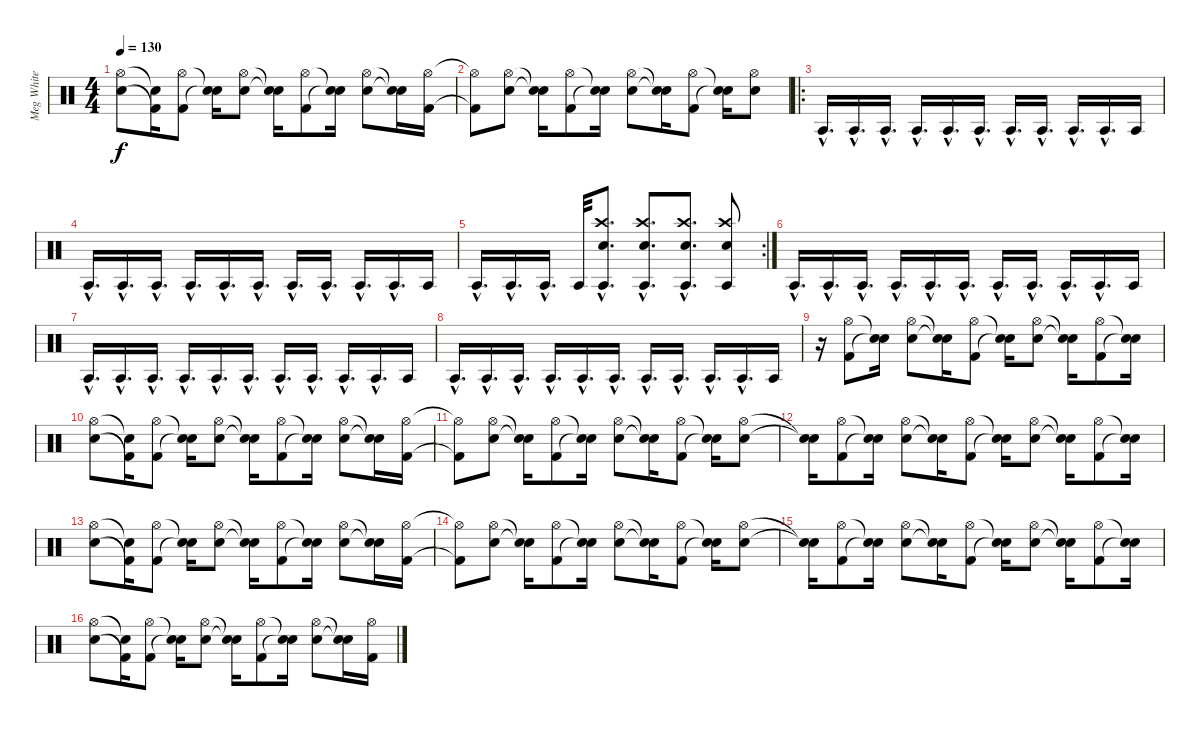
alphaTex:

\track ("Meg White" "Meg White") {instrument percussion}
\staff {score}
\articulation defaults
\ts (4 4)
\tempo 130
\clef neutral
\ks c
("Hi-Hat (open)" "Snare (hit) 2").8{dy f} ("Snare (hit)"{t} "Kick (hit) 2"{t}).16 ("Hi-Hat (open)" "Kick (hit) 2").8 ("Snare (hit)"{t} "Snare (hit) 2"{t}).16 ("Hi-Hat (open)" "Snare (hit) 2").8 ("Snare (hit)"{t} "Snare (hit)"{t}).16 ("Hi-Hat (open)" "Kick (hit) 2").8 ("Snare (hit)"{t} "Snare (hit)"{t}).16 ("Hi-Hat (open)" "Snare (hit) 2").8 ("Snare (hit)"{t} "Snare (hit)"{t}).16 ("Hi-Hat (open)" "Kick (hit) 2").16 |
("Hi-Hat (open)"{t} "Kick (hit) 2"{t}).8 ("Hi-Hat (open)" "Snare (hit) 2").8 ("Snare (hit)"{t} "Snare (hit)"{t}).16 ("Hi-Hat (open)" "Kick (hit) 2").8 ("Snare (hit)"{t} "Snare (hit)"{t}).16 ("Hi-Hat (open)" "Snare (hit) 2").8 ("Snare (hit)"{t} "Snare (hit)"{t}).16 ("Hi-Hat (open)" "Kick (hit) 2").8 ("Snare (hit)"{t} "Snare (hit)"{t}).16 ("Hi-Hat (open)" "Snare (hit) 2").8 |
\ro "Agogo tow (hit)"{hac}.16{d} "Agogo tow (hit)"{hac}.16{d} "Agogo tow (hit)"{hac}.16{d} "Agogo tow (hit)"{hac}.16{d} "Agogo tow (hit)"{hac}.16{d} "Agogo tow (hit)"{hac}.16{d} "Agogo tow (hit)"{hac}.16{d} "Agogo tow (hit)"{hac}.16{d} "Agogo tow (hit)"{hac}.16{d} "Agogo tow (hit)"{hac}.16{d} "Agogo tow (hit)".16
|
"Agogo tow (hit)"{hac}.16{d} "Agogo tow (hit)"{hac}.16{d} "Agogo tow (hit)"{hac}.16{d} "Agogo tow (hit)"{hac}.16{d} "Agogo tow (hit)"{hac}.16{d} "Agogo tow (hit)"{hac}.16{d} "Agogo tow (hit)"{hac}.16{d} "Agogo tow (hit)"{hac}.16{d} "Agogo tow (hit)"{hac}.16{d} "Agogo tow (hit)"{hac}.16{d} "Agogo tow (hit)".16 |
\rc 2 "Agogo tow (hit)"{hac}.16{d} "Agogo tow (hit)"{hac}.16{d} "Agogo tow (hit)"{hac}.16{d} "Agogo tow (hit)".32
("Agogo tow (hit)"{hac} "Crash high (hit)"{hac} "Electric Snare (hit)"{hac}).8{d} ("Agogo tow (hit)"{hac} "Crash high (hit)"{hac} "Electric Snare (hit)"{hac}).8{d} ("Agogo tow (hit)"{hac} "Crash high (hit)"{hac} "Electric Snare (hit)"{hac}).8{d} ("Agogo tow (hit)" "Crash high (hit)" "Electric Snare (hit)").8 |
"Agogo tow (hit)"{hac}.16{d} "Agogo tow (hit)"{hac}.16{d} "Agogo tow (hit)"{hac}.16{d} "Agogo tow (hit)"{hac}.16{d} "Agogo tow (hit)"{hac}.16{d} "Agogo tow (hit)"{hac}.16{d} "Agogo tow (hit)"{hac}.16{d} "Agogo tow (hit)"{hac}.16{d} "Agogo tow (hit)"{hac}.16{d} "Agogo tow (hit)"{hac}.16{d} "Agogo tow (hit)".16 |
"Agogo tow (hit)"{hac}.16{d} "Agogo tow (hit)"{hac}.16{d} "Agogo tow (hit)"{hac}.16{d} "Agogo tow (hit)"{hac}.16{d} "Agogo tow (hit)"{hac}.16{d} "Agogo tow (hit)"{hac}.16{d} "Agogo tow (hit)"{hac}.16{d} "Agogo tow (hit)"{hac}.16{d} "Agogo tow (hit)"{hac}.16{d} "Agogo tow (hit)"{hac}.16{d} "Agogo tow (hit)".16 |
"Agogo tow (hit)"{hac}.16{d} "Agogo tow (hit)"{hac}.16{d} "Agogo tow (hit)"{hac}.16{d} "Agogo tow (hit)"{hac}.16{d} "Agogo tow (hit)"{hac}.16{d} "Agogo tow (hit)"{hac}.16{d} "Agogo tow (hit)"{hac}.16{d} "Agogo tow (hit)"{hac}.16{d} "Agogo tow (hit)"{hac}.16{d} "Agogo tow (hit)"{hac}.16{d} "Agogo tow (hit)".16 |
r.16 ("Hi-Hat (open)" "Kick (hit) 2").8 ("Snare (hit)"{t} "Snare (hit)"{t}).16 ("Hi-Hat (open)" "Snare (hit) 2").8 ("Snare (hit)"{t} "Snare (hit)"{t}).16 ("Hi-Hat (open)" "Kick (hit) 2").8 ("Snare (hit)"{t} "Snare (hit)"{t}).16 ("Hi-Hat (open)" "Snare (hit) 2").8 ("Snare (hit)"{t} "Snare (hit)"{t}).16 ("Hi-Hat (open)" "Kick (hit) 2").8 ("Snare (hit)"{t} "Snare (hit)"{t}).16 |
("Hi-Hat (open)" "Snare (hit) 2").8 ("Snare (hit)"{t} "Kick (hit) 2"{t}).16 ("Hi-Hat (open)" "Kick (hit) 2").8 ("Snare (hit)"{t} "Snare (hit) 2"{t}).16 ("Hi-Hat (open)" "Snare (hit) 2").8 ("Snare (hit)"{t} "Snare (hit)"{t}).16 ("Hi-Hat (open)" "Kick (hit) 2").8 ("Snare (hit)"{t} "Snare (hit)"{t}).16 ("Hi-Hat (open)" "Snare (hit) 2").8 ("Snare (hit)"{t} "Snare (hit)"{t}).16 ("Hi-Hat (open)" "Kick (hit) 2").16 |
("Hi-Hat (open)"{t} "Kick (hit) 2"{t}).8 ("Hi-Hat (open)" "Snare (hit) 2").8 ("Snare (hit)"{t} "Snare (hit)"{t}).16 ("Hi-Hat (open)" "Kick (hit) 2").8 ("Snare (hit)"{t} "Snare (hit)"{t}).16 ("Hi-Hat (open)" "Snare (hit) 2").8 ("Snare (hit)"{t} "Snare (hit)"{t}).16 ("Hi-Hat (open)" "Kick (hit) 2").8 ("Snare (hit)"{t} "Snare (hit)"{t}).16 ("Hi-Hat (open)" "Snare (hit) 2").8 |
("Snare (hit)"{t} "Snare (hit)"{t}).16 ("Hi-Hat (open)" "Kick (hit) 2").8 ("Snare (hit)"{t} "Snare (hit)"{t}).16 ("Hi-Hat (open)" "Snare (hit) 2").8 ("Snare (hit)"{t} "Snare (hit)"{t}).16 ("Hi-Hat (open)" "Kick (hit) 2").8 ("Snare (hit)"{t} "Snare (hit)"{t}).16 ("Hi-Hat (open)" "Snare (hit) 2").8 ("Snare (hit)"{t} "Snare (hit)"{t}).16 ("Hi-Hat (open)" "Kick (hit) 2").8 ("Snare (hit)"{t} "Snare (hit)"{t}).16 |
("Hi-Hat (open)" "Snare (hit) 2").8 ("Snare (hit)"{t} "Kick (hit) 2"{t}).16 ("Hi-Hat (open)" "Kick (hit) 2").8 ("Snare (hit)"{t} "Snare (hit) 2"{t}).16 ("Hi-Hat (open)" "Snare (hit) 2").8 ("Snare (hit)"{t} "Snare (hit)"{t}).16 ("Hi-Hat (open)" "Kick (hit) 2").8 ("Snare (hit)"{t} "Snare (hit)"{t}).16 ("Hi-Hat (open)" "Snare (hit) 2").8 ("Snare (hit)"{t} "Snare (hit)"{t}).16 ("Hi-Hat (open)" "Kick (hit) 2").16 |
("Hi-Hat (open)"{t} "Kick (hit) 2"{t}).8 ("Hi-Hat (open)" "Snare (hit) 2").8 ("Snare (hit)"{t} "Snare (hit)"{t}).16 ("Hi-Hat (open)" "Kick (hit) 2").8 ("Snare (hit)"{t} "Snare (hit)"{t}).16 ("Hi-Hat (open)" "Snare (hit) 2").8 ("Snare (hit)"{t} "Snare (hit)"{t}).16 ("Hi-Hat (open)" "Kick (hit) 2").8 ("Snare (hit)"{t} "Snare (hit)"{t}).16 ("Hi-Hat (open)" "Snare (hit) 2").8 |
("Snare (hit)"{t} "Snare (hit)"{t}).16 ("Hi-Hat (open)" "Kick (hit) 2").8 ("Snare (hit)"{t} "Snare (hit)"{t}).16 ("Hi-Hat (open)" "Snare (hit) 2").8 ("Snare (hit)"{t} "Snare (hit)"{t}).16 ("Hi-Hat (open)" "Kick (hit) 2").8 ("Snare (hit)"{t} "Snare (hit)"{t}).16 ("Hi-Hat (open)" "Snare (hit) 2").8 ("Snare (hit)"{t} "Snare (hit)"{t}).16 ("Hi-Hat (open)" "Kick (hit) 2").8 ("Snare (hit)"{t} "Snare (hit)"{t}).16 |
("Hi-Hat (open)" "Snare (hit) 2").8 ("Snare (hit)"{t} "Kick (hit) 2"{t}).16 ("Hi-Hat (open)" "Kick (hit) 2").8 ("Snare (hit)"{t} "Snare (hit) 2"{t}).16 ("Hi-Hat (open)" "Snare (hit) 2").8 ("Snare (hit)"{t} "Snare (hit)"{t}).16 ("Hi-Hat (open)" "Kick (hit) 2").8 ("Snare (hit)"{t} "Snare (hit)"{t}).16 ("Hi-Hat (open)" "Snare (hit) 2").8 ("Snare (hit)"{t} "Snare (hit)"{t}).16 ("Hi-Hat (open)" "Kick (hit) 2").16
